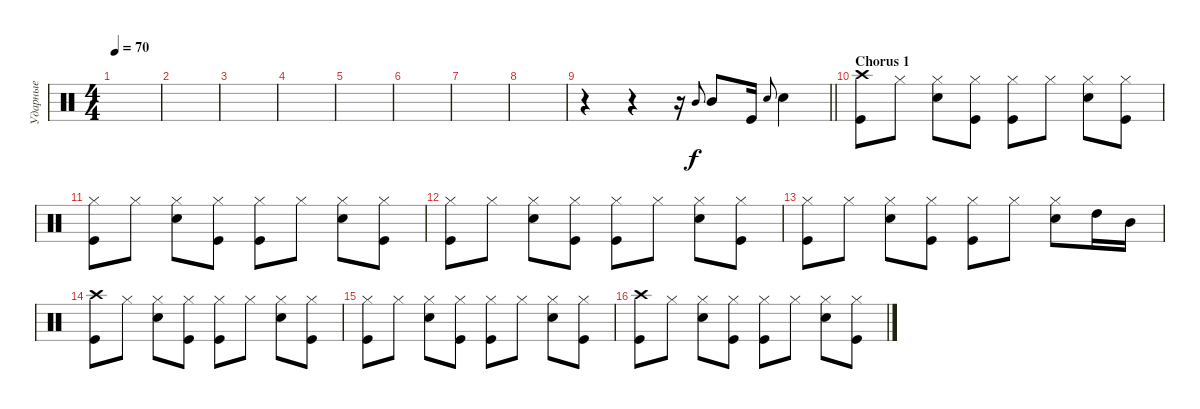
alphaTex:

\track ("Ударные" "Ударные") {instrument percussion}
\staff {score}
\articulation defaults
\ts (4 4)
\tempo 70
\clef neutral
\ks c
|
|
|
|
|
|
|
|
\barLineRight lightlight
r.4 r.4 r.16 "Mid Tom (hit)".8{gr onbeat} "Mid Tom (hit)".8 "Kick (hit)".16 "Snare (hit) 2".8{gr onbeat} "Snare (hit) 2".4 |
\section ("" "Chorus 1")
("Kick (hit)" "Crash high (hit)").8 "Hi-Hat (closed)".8 ("Hi-Hat (closed)" "Snare (hit) 2").8 ("Hi-Hat (closed)" "Kick (hit)").8 ("Hi-Hat (closed)" "Kick (hit)").8 "Hi-Hat (closed)".8 ("Hi-Hat (closed)" "Snare (hit) 2").8 ("Hi-Hat (closed)" "Kick (hit)").8 |
("Kick (hit)" "Hi-Hat (closed)").8 "Hi-Hat (closed)".8 ("Hi-Hat (closed)" "Snare (hit) 2").8 ("Hi-Hat (closed)" "Kick (hit)").8 ("Hi-Hat (closed)" "Kick (hit)").8 "Hi-Hat (closed)".8 ("Hi-Hat (closed)" "Snare (hit) 2").8 ("Hi-Hat (closed)" "Kick (hit)").8 |
("Kick (hit)" "Hi-Hat (closed)").8 "Hi-Hat (closed)".8 ("Hi-Hat (closed)" "Snare (hit) 2").8 ("Hi-Hat (closed)" "Kick (hit)").8 ("Hi-Hat (closed)" "Kick (hit)").8 "Hi-Hat (closed)".8 ("Hi-Hat (closed)" "Snare (hit) 2").8 ("Hi-Hat (closed)" "Kick (hit)").8 |
("Kick (hit)" "Hi-Hat (closed)").8 "Hi-Hat (closed)".8 ("Hi-Hat (closed)" "Snare (hit) 2").8 ("Hi-Hat (closed)" "Kick (hit)").8 ("Hi-Hat (closed)" "Kick (hit)").8 "Hi-Hat (closed)".8 ("Hi-Hat (closed)" "Snare (hit) 2").8 "High Tom (hit)".16 "Mid Tom (hit)".16 |
("Kick (hit)" "Crash high (hit)").8 "Hi-Hat (closed)".8 ("Hi-Hat (closed)" "Snare (hit) 2").8 ("Hi-Hat (closed)" "Kick (hit)").8 ("Hi-Hat (closed)" "Kick (hit)").8 "Hi-Hat (closed)".8 ("Hi-Hat (closed)" "Snare (hit) 2").8 ("Hi-Hat (closed)" "Kick (hit)").8 |
("Kick (hit)" "Hi-Hat (closed)").8 "Hi-Hat (closed)".8 ("Hi-Hat (closed)" "Snare (hit) 2").8 ("Hi-Hat (closed)" "Kick (hit)").8 ("Hi-Hat (closed)" "Kick (hit)").8 "Hi-Hat (closed)".8 ("Hi-Hat (closed)" "Snare (hit) 2").8 ("Hi-Hat (closed)" "Kick (hit)").8 |
("Kick (hit)" "Crash high (hit)").8 "Hi-Hat (closed)".8 ("Hi-Hat (closed)" "Snare (hit) 2").8 ("Hi-Hat (closed)" "Kick (hit)").8 ("Hi-Hat (closed)" "Kick (hit)").8 "Hi-Hat (closed)".8 ("Hi-Hat (closed)" "Snare (hit) 2").8 ("Hi-Hat (closed)" "Kick (hit)").8
